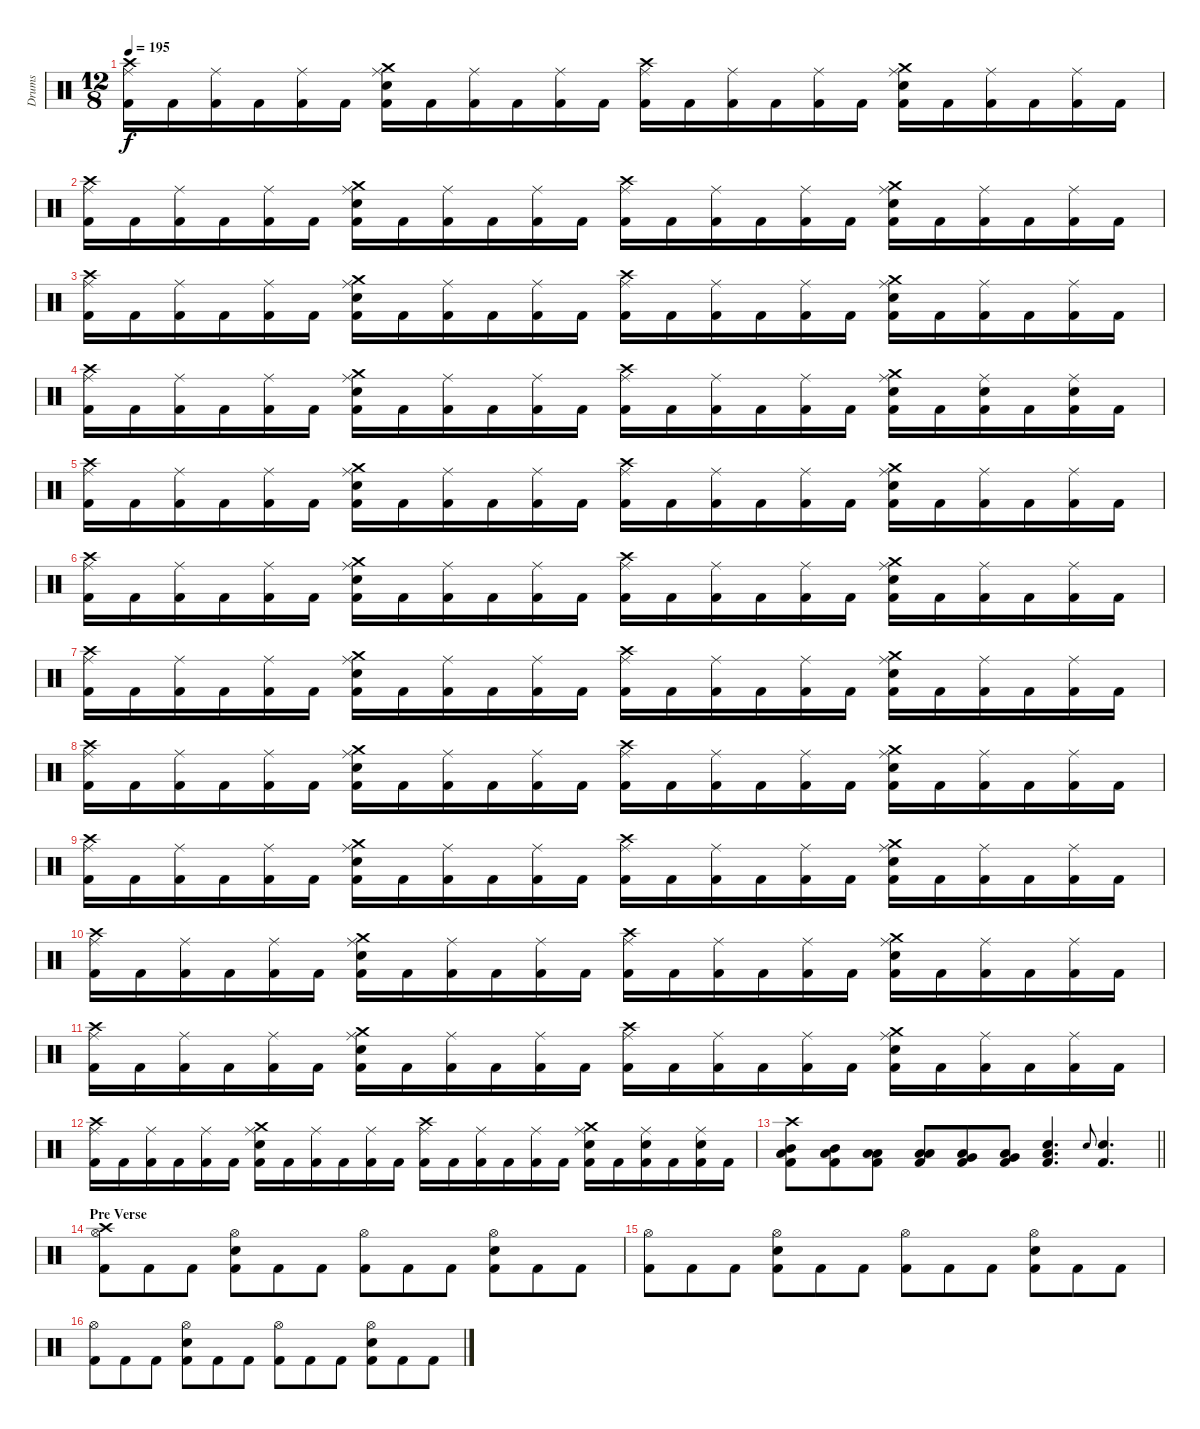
\track ("Drums" "Drums") {instrument percussion}
\staff {score}
\articulation defaults
\ts (12 8)
\tempo 195
\clef neutral
\ks c
("Crash high (hit)" "Ride (middle)" "Kick (hit) 2").16{dy f} "Kick (hit) 2".16 ("Ride (middle)" "Kick (hit) 2").16 "Kick (hit) 2".16 ("Ride (middle)" "Kick (hit) 2").16 "Kick (hit) 2".16 ("Crash medium (hit)" "Ride (middle)" "Snare (hit) 2" "Kick (hit) 2").16 "Kick (hit) 2".16 ("Ride (middle)" "Kick (hit) 2").16 "Kick (hit) 2".16 ("Ride (middle)" "Kick (hit) 2").16 "Kick (hit) 2".16 ("Crash high (hit)" "Ride (middle)" "Kick (hit) 2").16 "Kick (hit) 2".16 ("Ride (middle)" "Kick (hit) 2").16 "Kick (hit) 2".16 ("Ride (middle)" "Kick (hit) 2").16 "Kick (hit) 2".16 ("Crash medium (hit)" "Ride (middle)" "Snare (hit) 2" "Kick (hit) 2").16 "Kick (hit) 2".16 ("Ride (middle)" "Kick (hit) 2").16 "Kick (hit) 2".16 ("Ride (middle)" "Kick (hit) 2").16 "Kick (hit) 2".16 |
("Crash high (hit)" "Ride (middle)" "Kick (hit) 2").16 "Kick (hit) 2".16 ("Ride (middle)" "Kick (hit) 2").16 "Kick (hit) 2".16 ("Ride (middle)" "Kick (hit) 2").16 "Kick (hit) 2".16 ("Crash medium (hit)" "Ride (middle)" "Snare (hit) 2" "Kick (hit) 2").16 "Kick (hit) 2".16 ("Ride (middle)" "Kick (hit) 2").16 "Kick (hit) 2".16 ("Ride (middle)" "Kick (hit) 2").16 "Kick (hit) 2".16 ("Crash high (hit)" "Ride (middle)" "Kick (hit) 2").16 "Kick (hit) 2".16 ("Ride (middle)" "Kick (hit) 2").16 "Kick (hit) 2".16 ("Ride (middle)" "Kick (hit) 2").16 "Kick (hit) 2".16 ("Crash medium (hit)" "Ride (middle)" "Snare (hit) 2" "Kick (hit) 2").16 "Kick (hit) 2".16 ("Ride (middle)" "Kick (hit) 2").16 "Kick (hit) 2".16 ("Ride (middle)" "Kick (hit) 2").16 "Kick (hit) 2".16 |
("Crash high (hit)" "Ride (middle)" "Kick (hit) 2").16 "Kick (hit) 2".16 ("Ride (middle)" "Kick (hit) 2").16 "Kick (hit) 2".16 ("Ride (middle)" "Kick (hit) 2").16 "Kick (hit) 2".16 ("Crash medium (hit)" "Ride (middle)" "Snare (hit) 2" "Kick (hit) 2").16 "Kick (hit) 2".16 ("Ride (middle)" "Kick (hit) 2").16 "Kick (hit) 2".16 ("Ride (middle)" "Kick (hit) 2").16 "Kick (hit) 2".16 ("Crash high (hit)" "Ride (middle)" "Kick (hit) 2").16 "Kick (hit) 2".16 ("Ride (middle)" "Kick (hit) 2").16 "Kick (hit) 2".16 ("Ride (middle)" "Kick (hit) 2").16 "Kick (hit) 2".16 ("Crash medium (hit)" "Ride (middle)" "Snare (hit) 2" "Kick (hit) 2").16 "Kick (hit) 2".16 ("Ride (middle)" "Kick (hit) 2").16 "Kick (hit) 2".16 ("Ride (middle)" "Kick (hit) 2").16 "Kick (hit) 2".16 |
("Crash high (hit)" "Ride (middle)" "Kick (hit) 2").16 "Kick (hit) 2".16 ("Ride (middle)" "Kick (hit) 2").16 "Kick (hit) 2".16 ("Ride (middle)" "Kick (hit) 2").16 "Kick (hit) 2".16 ("Crash medium (hit)" "Ride (middle)" "Snare (hit) 2" "Kick (hit) 2").16 "Kick (hit) 2".16 ("Ride (middle)" "Kick (hit) 2").16 "Kick (hit) 2".16 ("Ride (middle)" "Kick (hit) 2").16 "Kick (hit) 2".16 ("Crash high (hit)" "Ride (middle)" "Kick (hit) 2").16 "Kick (hit) 2".16 ("Ride (middle)" "Kick (hit) 2").16 "Kick (hit) 2".16 ("Ride (middle)" "Kick (hit) 2").16 "Kick (hit) 2".16 ("Crash medium (hit)" "Ride (middle)" "Snare (hit) 2" "Kick (hit) 2").16 "Kick (hit) 2".16 ("Ride (middle)" "Snare (hit) 2" "Kick (hit) 2").16 "Kick (hit) 2".16 ("Ride (middle)" "Snare (hit) 2" "Kick (hit) 2").16 "Kick (hit) 2".16 |
("Crash high (hit)" "Ride (middle)" "Kick (hit) 2").16 "Kick (hit) 2".16 ("Ride (middle)" "Kick (hit) 2").16 "Kick (hit) 2".16 ("Ride (middle)" "Kick (hit) 2").16 "Kick (hit) 2".16 ("Crash medium (hit)" "Ride (middle)" "Snare (hit) 2" "Kick (hit) 2").16 "Kick (hit) 2".16 ("Ride (middle)" "Kick (hit) 2").16 "Kick (hit) 2".16 ("Ride (middle)" "Kick (hit) 2").16 "Kick (hit) 2".16 ("Crash high (hit)" "Ride (middle)" "Kick (hit) 2").16 "Kick (hit) 2".16 ("Ride (middle)" "Kick (hit) 2").16 "Kick (hit) 2".16 ("Ride (middle)" "Kick (hit) 2").16 "Kick (hit) 2".16 ("Crash medium (hit)" "Ride (middle)" "Snare (hit) 2" "Kick (hit) 2").16 "Kick (hit) 2".16 ("Ride (middle)" "Kick (hit) 2").16 "Kick (hit) 2".16 ("Ride (middle)" "Kick (hit) 2").16 "Kick (hit) 2".16 |
("Crash high (hit)" "Ride (middle)" "Kick (hit) 2").16 "Kick (hit) 2".16 ("Ride (middle)" "Kick (hit) 2").16 "Kick (hit) 2".16 ("Ride (middle)" "Kick (hit) 2").16 "Kick (hit) 2".16 ("Crash medium (hit)" "Ride (middle)" "Snare (hit) 2" "Kick (hit) 2").16 "Kick (hit) 2".16 ("Ride (middle)" "Kick (hit) 2").16 "Kick (hit) 2".16 ("Ride (middle)" "Kick (hit) 2").16 "Kick (hit) 2".16 ("Crash high (hit)" "Ride (middle)" "Kick (hit) 2").16 "Kick (hit) 2".16 ("Ride (middle)" "Kick (hit) 2").16 "Kick (hit) 2".16 ("Ride (middle)" "Kick (hit) 2").16 "Kick (hit) 2".16 ("Crash medium (hit)" "Ride (middle)" "Snare (hit) 2" "Kick (hit) 2").16 "Kick (hit) 2".16 ("Ride (middle)" "Kick (hit) 2").16 "Kick (hit) 2".16 ("Ride (middle)" "Kick (hit) 2").16 "Kick (hit) 2".16 |
("Crash high (hit)" "Ride (middle)" "Kick (hit) 2").16 "Kick (hit) 2".16 ("Ride (middle)" "Kick (hit) 2").16 "Kick (hit) 2".16 ("Ride (middle)" "Kick (hit) 2").16 "Kick (hit) 2".16 ("Crash medium (hit)" "Ride (middle)" "Snare (hit) 2" "Kick (hit) 2").16 "Kick (hit) 2".16 ("Ride (middle)" "Kick (hit) 2").16 "Kick (hit) 2".16 ("Ride (middle)" "Kick (hit) 2").16 "Kick (hit) 2".16 ("Crash high (hit)" "Ride (middle)" "Kick (hit) 2").16 "Kick (hit) 2".16 ("Ride (middle)" "Kick (hit) 2").16 "Kick (hit) 2".16 ("Ride (middle)" "Kick (hit) 2").16 "Kick (hit) 2".16 ("Crash medium (hit)" "Ride (middle)" "Snare (hit) 2" "Kick (hit) 2").16 "Kick (hit) 2".16 ("Ride (middle)" "Kick (hit) 2").16 "Kick (hit) 2".16 ("Ride (middle)" "Kick (hit) 2").16 "Kick (hit) 2".16 |
("Crash high (hit)" "Ride (middle)" "Kick (hit) 2").16 "Kick (hit) 2".16 ("Ride (middle)" "Kick (hit) 2").16 "Kick (hit) 2".16 ("Ride (middle)" "Kick (hit) 2").16 "Kick (hit) 2".16 ("Crash medium (hit)" "Ride (middle)" "Snare (hit) 2" "Kick (hit) 2").16 "Kick (hit) 2".16 ("Ride (middle)" "Kick (hit) 2").16 "Kick (hit) 2".16 ("Ride (middle)" "Kick (hit) 2").16 "Kick (hit) 2".16 ("Crash high (hit)" "Ride (middle)" "Kick (hit) 2").16 "Kick (hit) 2".16 ("Ride (middle)" "Kick (hit) 2").16 "Kick (hit) 2".16 ("Ride (middle)" "Kick (hit) 2").16 "Kick (hit) 2".16 ("Crash medium (hit)" "Ride (middle)" "Snare (hit) 2" "Kick (hit) 2").16 "Kick (hit) 2".16 ("Ride (middle)" "Kick (hit) 2").16 "Kick (hit) 2".16 ("Ride (middle)" "Kick (hit) 2").16 "Kick (hit) 2".16 |
("Crash high (hit)" "Ride (middle)" "Kick (hit) 2").16 "Kick (hit) 2".16 ("Ride (middle)" "Kick (hit) 2").16 "Kick (hit) 2".16 ("Ride (middle)" "Kick (hit) 2").16 "Kick (hit) 2".16 ("Crash medium (hit)" "Ride (middle)" "Snare (hit) 2" "Kick (hit) 2").16 "Kick (hit) 2".16 ("Ride (middle)" "Kick (hit) 2").16 "Kick (hit) 2".16 ("Ride (middle)" "Kick (hit) 2").16 "Kick (hit) 2".16 ("Crash high (hit)" "Ride (middle)" "Kick (hit) 2").16 "Kick (hit) 2".16 ("Ride (middle)" "Kick (hit) 2").16 "Kick (hit) 2".16 ("Ride (middle)" "Kick (hit) 2").16 "Kick (hit) 2".16 ("Crash medium (hit)" "Ride (middle)" "Snare (hit) 2" "Kick (hit) 2").16 "Kick (hit) 2".16 ("Ride (middle)" "Kick (hit) 2").16 "Kick (hit) 2".16 ("Ride (middle)" "Kick (hit) 2").16 "Kick (hit) 2".16 |
("Crash high (hit)" "Ride (middle)" "Kick (hit) 2").16 "Kick (hit) 2".16 ("Ride (middle)" "Kick (hit) 2").16 "Kick (hit) 2".16 ("Ride (middle)" "Kick (hit) 2").16 "Kick (hit) 2".16 ("Crash medium (hit)" "Ride (middle)" "Snare (hit) 2" "Kick (hit) 2").16 "Kick (hit) 2".16 ("Ride (middle)" "Kick (hit) 2").16 "Kick (hit) 2".16 ("Ride (middle)" "Kick (hit) 2").16 "Kick (hit) 2".16 ("Crash high (hit)" "Ride (middle)" "Kick (hit) 2").16 "Kick (hit) 2".16 ("Ride (middle)" "Kick (hit) 2").16 "Kick (hit) 2".16 ("Ride (middle)" "Kick (hit) 2").16 "Kick (hit) 2".16 ("Crash medium (hit)" "Ride (middle)" "Snare (hit) 2" "Kick (hit) 2").16 "Kick (hit) 2".16 ("Ride (middle)" "Kick (hit) 2").16 "Kick (hit) 2".16 ("Ride (middle)" "Kick (hit) 2").16 "Kick (hit) 2".16 |
("Crash high (hit)" "Ride (middle)" "Kick (hit) 2").16 "Kick (hit) 2".16 ("Ride (middle)" "Kick (hit) 2").16 "Kick (hit) 2".16 ("Ride (middle)" "Kick (hit) 2").16 "Kick (hit) 2".16 ("Crash medium (hit)" "Ride (middle)" "Snare (hit) 2" "Kick (hit) 2").16 "Kick (hit) 2".16 ("Ride (middle)" "Kick (hit) 2").16 "Kick (hit) 2".16 ("Ride (middle)" "Kick (hit) 2").16 "Kick (hit) 2".16 ("Crash high (hit)" "Ride (middle)" "Kick (hit) 2").16 "Kick (hit) 2".16 ("Ride (middle)" "Kick (hit) 2").16 "Kick (hit) 2".16 ("Ride (middle)" "Kick (hit) 2").16 "Kick (hit) 2".16 ("Crash medium (hit)" "Ride (middle)" "Snare (hit) 2" "Kick (hit) 2").16 "Kick (hit) 2".16 ("Ride (middle)" "Kick (hit) 2").16 "Kick (hit) 2".16 ("Ride (middle)" "Kick (hit) 2").16 "Kick (hit) 2".16 |
("Crash high (hit)" "Ride (middle)" "Kick (hit) 2").16 "Kick (hit) 2".16 ("Ride (middle)" "Kick (hit) 2").16 "Kick (hit) 2".16 ("Ride (middle)" "Kick (hit) 2").16 "Kick (hit) 2".16 ("Crash medium (hit)" "Ride (middle)" "Snare (hit) 2" "Kick (hit) 2").16 "Kick (hit) 2".16 ("Ride (middle)" "Kick (hit) 2").16 "Kick (hit) 2".16 ("Ride (middle)" "Kick (hit) 2").16 "Kick (hit) 2".16 ("Crash high (hit)" "Ride (middle)" "Kick (hit) 2").16 "Kick (hit) 2".16 ("Ride (middle)" "Kick (hit) 2").16 "Kick (hit) 2".16 ("Ride (middle)" "Kick (hit) 2").16 "Kick (hit) 2".16 ("Crash medium (hit)" "Ride (middle)" "Snare (hit) 2" "Kick (hit) 2").16 "Kick (hit) 2".16 ("Ride (middle)" "Snare (hit) 2" "Kick (hit) 2").16 "Kick (hit) 2".16 ("Ride (middle)" "Snare (hit) 2" "Kick (hit) 2").16 "Kick (hit) 2".16 |
\barLineRight lightlight
("Crash high (hit)" "Mid Tom (hit)" "Low Floor Tom (hit)" "Kick (hit) 2").8 ("Mid Tom (hit)" "Low Floor Tom (hit)" "Kick (hit) 2").8 ("Low Tom (hit)" "Low Floor Tom (hit)" "Kick (hit) 2").8 ("Low Tom (hit)" "Low Floor Tom (hit)" "Kick (hit) 2").8 ("Very Low Tom (hit)" "Low Floor Tom (hit)" "Kick (hit) 2").8 ("Very Low Tom (hit)" "Low Floor Tom (hit)" "Kick (hit) 2").8 ("Low Floor Tom (hit)" "Snare (hit)" "Kick (hit) 2").4{d} "Snare (hit) 2".8{gr onbeat} ("Snare (hit) 2" "Kick (hit) 2").4{d} |
\section ("" "Pre Verse")
("Crash high (hit)" "Hi-Hat (open)" "Kick (hit) 2").8 "Kick (hit) 2".8 "Kick (hit) 2".8 ("Hi-Hat (open)" "Snare (hit) 2" "Kick (hit) 2").8 "Kick (hit) 2".8 "Kick (hit) 2".8 ("Hi-Hat (open)" "Kick (hit) 2").8 "Kick (hit) 2".8 "Kick (hit) 2".8 ("Hi-Hat (open)" "Snare (hit) 2" "Kick (hit) 2").8 "Kick (hit) 2".8 "Kick (hit) 2".8 |
("Hi-Hat (open)" "Kick (hit) 2").8 "Kick (hit) 2".8 "Kick (hit) 2".8 ("Hi-Hat (open)" "Snare (hit) 2" "Kick (hit) 2").8 "Kick (hit) 2".8 "Kick (hit) 2".8 ("Hi-Hat (open)" "Kick (hit) 2").8 "Kick (hit) 2".8 "Kick (hit) 2".8 ("Hi-Hat (open)" "Snare (hit) 2" "Kick (hit) 2").8 "Kick (hit) 2".8 "Kick (hit) 2".8 |
("Hi-Hat (open)" "Kick (hit) 2").8 "Kick (hit) 2".8 "Kick (hit) 2".8 ("Hi-Hat (open)" "Snare (hit) 2" "Kick (hit) 2").8 "Kick (hit) 2".8 "Kick (hit) 2".8 ("Hi-Hat (open)" "Kick (hit) 2").8 "Kick (hit) 2".8 "Kick (hit) 2".8 ("Hi-Hat (open)" "Snare (hit) 2" "Kick (hit) 2").8 "Kick (hit) 2".8 "Kick (hit) 2".8
